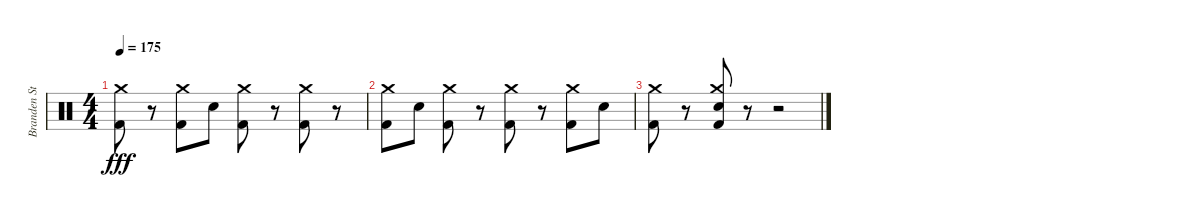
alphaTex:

\track ("Branden Steineckert (Drums)" "Branden St") {instrument percussion}
\staff {score}
\articulation defaults
\ts (4 4)
\tempo 175
\clef neutral
\ks c
("Kick (hit) 2" "Crash medium (hit)").8{dy fff} r.8 ("Kick (hit) 2" "Crash medium (hit)").8 "Electric Snare (hit)".8 ("Kick (hit) 2" "Crash medium (hit)").8 r.8 ("Kick (hit) 2" "Crash medium (hit)").8 r.8 |
("Kick (hit) 2" "Crash medium (hit)").8 "Electric Snare (hit)".8 ("Kick (hit) 2" "Crash medium (hit)").8 r.8 ("Kick (hit) 2" "Crash medium (hit)").8 r.8 ("Kick (hit) 2" "Crash medium (hit)").8 "Electric Snare (hit)".8 |
("Kick (hit) 2" "Crash medium (hit)").8 r.8 ("Kick (hit) 2" "Electric Snare (hit)" "Crash medium (hit)").8 r.8 r.2
